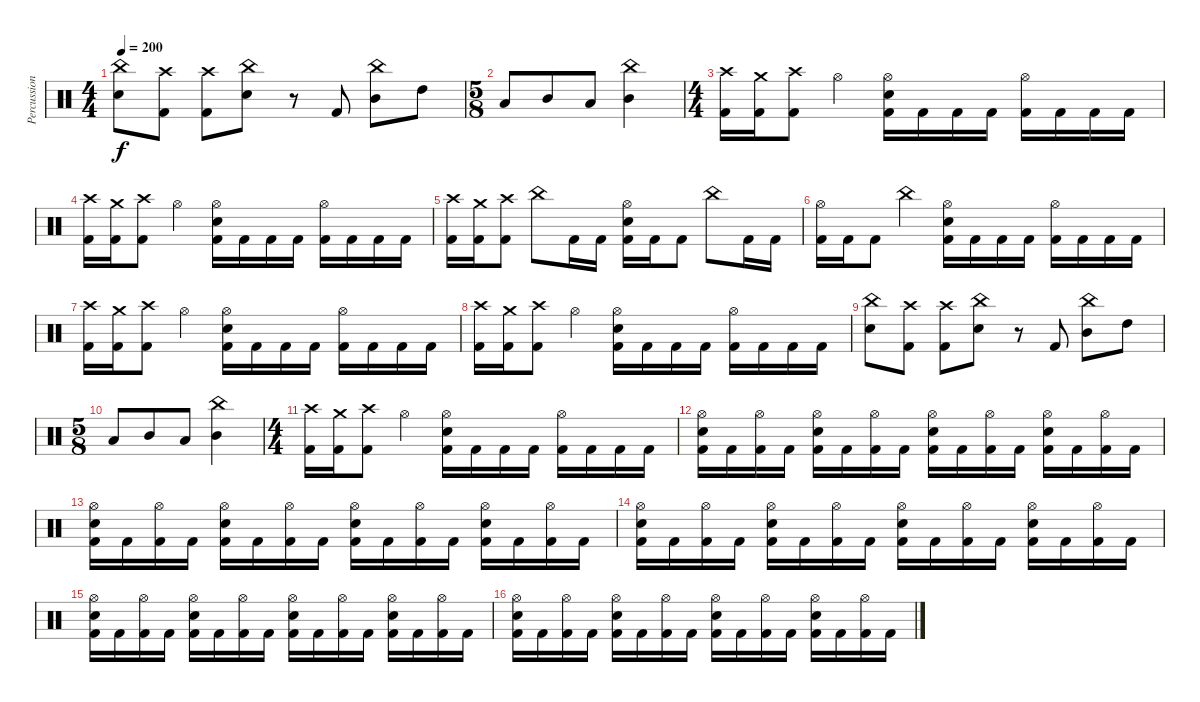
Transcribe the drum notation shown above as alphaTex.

\track ("Percussion" "Percussion") {instrument percussion}
\staff {score}
\articulation defaults
\ts (4 4)
\tempo 200
\clef neutral
\ks c
("China (hit)" "Electric Snare (hit)").8{dy f} ("Crash high (hit)" "Kick (hit) 2").8 ("Crash high (hit)" "Kick (hit) 2").8 ("China (hit)" "Electric Snare (hit)").8 r.8 "Kick (hit) 2".8 ("China (hit)" "Mid Tom (hit)").8 "High Tom (hit)".8 |
\ts (5 8)
"Low Tom (hit)".8 "Mid Tom (hit)".8 "Low Tom (hit)".8 ("China (hit)" "Mid Tom (hit)").4 |
\ts (4 4)
("Crash high (hit)" "Kick (hit) 2").16 ("Crash medium (hit)" "Kick (hit) 2").16 ("Crash high (hit)" "Kick (hit) 2").8 "Hi-Hat (open)".4 ("Hi-Hat (open)" "Electric Snare (hit)" "Kick (hit) 2").16 "Kick (hit) 2".16 "Kick (hit) 2".16 "Kick (hit) 2".16 ("Hi-Hat (open)" "Kick (hit) 2").16 "Kick (hit) 2".16 "Kick (hit) 2".16 "Kick (hit) 2".16 |
("Crash high (hit)" "Kick (hit) 2").16 ("Crash medium (hit)" "Kick (hit) 2").16 ("Crash high (hit)" "Kick (hit) 2").8 "Hi-Hat (open)".4 ("Hi-Hat (open)" "Electric Snare (hit)" "Kick (hit) 2").16 "Kick (hit) 2".16 "Kick (hit) 2".16 "Kick (hit) 2".16 ("Hi-Hat (open)" "Kick (hit) 2").16 "Kick (hit) 2".16 "Kick (hit) 2".16 "Kick (hit) 2".16 |
("Crash high (hit)" "Kick (hit) 2").16 ("Crash medium (hit)" "Kick (hit) 2").16 ("Crash high (hit)" "Kick (hit) 2").8 "China (hit)".8 "Kick (hit) 2".16 "Kick (hit) 2".16 ("Hi-Hat (open)" "Electric Snare (hit)" "Kick (hit) 2").16 "Kick (hit) 2".16 "Kick (hit) 2".8 "China (hit)".8 "Kick (hit) 2".16 "Kick (hit) 2".16 |
("Hi-Hat (open)" "Kick (hit) 2").16 "Kick (hit) 2".16 "Kick (hit) 2".8 "China (hit)".4 ("Hi-Hat (open)" "Electric Snare (hit)" "Kick (hit) 2").16 "Kick (hit) 2".16 "Kick (hit) 2".16 "Kick (hit) 2".16 ("Hi-Hat (open)" "Kick (hit) 2").16 "Kick (hit) 2".16 "Kick (hit) 2".16 "Kick (hit) 2".16 |
("Crash high (hit)" "Kick (hit) 2").16 ("Crash medium (hit)" "Kick (hit) 2").16 ("Crash high (hit)" "Kick (hit) 2").8 "Hi-Hat (open)".4 ("Hi-Hat (open)" "Electric Snare (hit)" "Kick (hit) 2").16 "Kick (hit) 2".16 "Kick (hit) 2".16 "Kick (hit) 2".16 ("Hi-Hat (open)" "Kick (hit) 2").16 "Kick (hit) 2".16 "Kick (hit) 2".16 "Kick (hit) 2".16 |
("Crash high (hit)" "Kick (hit) 2").16 ("Crash medium (hit)" "Kick (hit) 2").16 ("Crash high (hit)" "Kick (hit) 2").8 "Hi-Hat (open)".4 ("Hi-Hat (open)" "Electric Snare (hit)" "Kick (hit) 2").16 "Kick (hit) 2".16 "Kick (hit) 2".16 "Kick (hit) 2".16 ("Hi-Hat (open)" "Kick (hit) 2").16 "Kick (hit) 2".16 "Kick (hit) 2".16 "Kick (hit) 2".16 |
("China (hit)" "Electric Snare (hit)").8 ("Crash high (hit)" "Kick (hit) 2").8 ("Crash high (hit)" "Kick (hit) 2").8 ("China (hit)" "Electric Snare (hit)").8 r.8 "Kick (hit) 2".8 ("China (hit)" "Mid Tom (hit)").8 "High Tom (hit)".8 |
\ts (5 8)
"Low Tom (hit)".8 "Mid Tom (hit)".8 "Low Tom (hit)".8 ("China (hit)" "Mid Tom (hit)").4 |
\ts (4 4)
("Crash high (hit)" "Kick (hit) 2").16 ("Crash medium (hit)" "Kick (hit) 2").16 ("Crash high (hit)" "Kick (hit) 2").8 "Hi-Hat (open)".4 ("Hi-Hat (open)" "Electric Snare (hit)" "Kick (hit) 2").16 "Kick (hit) 2".16 "Kick (hit) 2".16 "Kick (hit) 2".16 ("Hi-Hat (open)" "Kick (hit) 2").16 "Kick (hit) 2".16 "Kick (hit) 2".16 "Kick (hit) 2".16 |
("Hi-Hat (open)" "Electric Snare (hit)" "Kick (hit) 2").16 "Kick (hit) 2".16 ("Hi-Hat (open)" "Kick (hit) 2").16 "Kick (hit) 2".16 ("Hi-Hat (open)" "Electric Snare (hit)" "Kick (hit) 2").16 "Kick (hit) 2".16 ("Hi-Hat (open)" "Kick (hit) 2").16 "Kick (hit) 2".16 ("Hi-Hat (open)" "Electric Snare (hit)" "Kick (hit) 2").16 "Kick (hit) 2".16 ("Hi-Hat (open)" "Kick (hit) 2").16 "Kick (hit) 2".16 ("Hi-Hat (open)" "Electric Snare (hit)" "Kick (hit) 2").16 "Kick (hit) 2".16 ("Hi-Hat (open)" "Kick (hit) 2").16 "Kick (hit) 2".16 |
("Hi-Hat (open)" "Electric Snare (hit)" "Kick (hit) 2").16 "Kick (hit) 2".16 ("Hi-Hat (open)" "Kick (hit) 2").16 "Kick (hit) 2".16 ("Hi-Hat (open)" "Electric Snare (hit)" "Kick (hit) 2").16 "Kick (hit) 2".16 ("Hi-Hat (open)" "Kick (hit) 2").16 "Kick (hit) 2".16 ("Hi-Hat (open)" "Electric Snare (hit)" "Kick (hit) 2").16 "Kick (hit) 2".16 ("Hi-Hat (open)" "Kick (hit) 2").16 "Kick (hit) 2".16 ("Hi-Hat (open)" "Electric Snare (hit)" "Kick (hit) 2").16 "Kick (hit) 2".16 ("Hi-Hat (open)" "Kick (hit) 2").16 "Kick (hit) 2".16 |
("Hi-Hat (open)" "Electric Snare (hit)" "Kick (hit) 2").16 "Kick (hit) 2".16 ("Hi-Hat (open)" "Kick (hit) 2").16 "Kick (hit) 2".16 ("Hi-Hat (open)" "Electric Snare (hit)" "Kick (hit) 2").16 "Kick (hit) 2".16 ("Hi-Hat (open)" "Kick (hit) 2").16 "Kick (hit) 2".16 ("Hi-Hat (open)" "Electric Snare (hit)" "Kick (hit) 2").16 "Kick (hit) 2".16 ("Hi-Hat (open)" "Kick (hit) 2").16 "Kick (hit) 2".16 ("Hi-Hat (open)" "Electric Snare (hit)" "Kick (hit) 2").16 "Kick (hit) 2".16 ("Hi-Hat (open)" "Kick (hit) 2").16 "Kick (hit) 2".16 |
("Hi-Hat (open)" "Electric Snare (hit)" "Kick (hit) 2").16 "Kick (hit) 2".16 ("Hi-Hat (open)" "Kick (hit) 2").16 "Kick (hit) 2".16 ("Hi-Hat (open)" "Electric Snare (hit)" "Kick (hit) 2").16 "Kick (hit) 2".16 ("Hi-Hat (open)" "Kick (hit) 2").16 "Kick (hit) 2".16 ("Hi-Hat (open)" "Electric Snare (hit)" "Kick (hit) 2").16 "Kick (hit) 2".16 ("Hi-Hat (open)" "Kick (hit) 2").16 "Kick (hit) 2".16 ("Hi-Hat (open)" "Electric Snare (hit)" "Kick (hit) 2").16 "Kick (hit) 2".16 ("Hi-Hat (open)" "Kick (hit) 2").16 "Kick (hit) 2".16 |
("Hi-Hat (open)" "Electric Snare (hit)" "Kick (hit) 2").16 "Kick (hit) 2".16 ("Hi-Hat (open)" "Kick (hit) 2").16 "Kick (hit) 2".16 ("Hi-Hat (open)" "Electric Snare (hit)" "Kick (hit) 2").16 "Kick (hit) 2".16 ("Hi-Hat (open)" "Kick (hit) 2").16 "Kick (hit) 2".16 ("Hi-Hat (open)" "Electric Snare (hit)" "Kick (hit) 2").16 "Kick (hit) 2".16 ("Hi-Hat (open)" "Kick (hit) 2").16 "Kick (hit) 2".16 ("Hi-Hat (open)" "Electric Snare (hit)" "Kick (hit) 2").16 "Kick (hit) 2".16 ("Hi-Hat (open)" "Kick (hit) 2").16 "Kick (hit) 2".16
